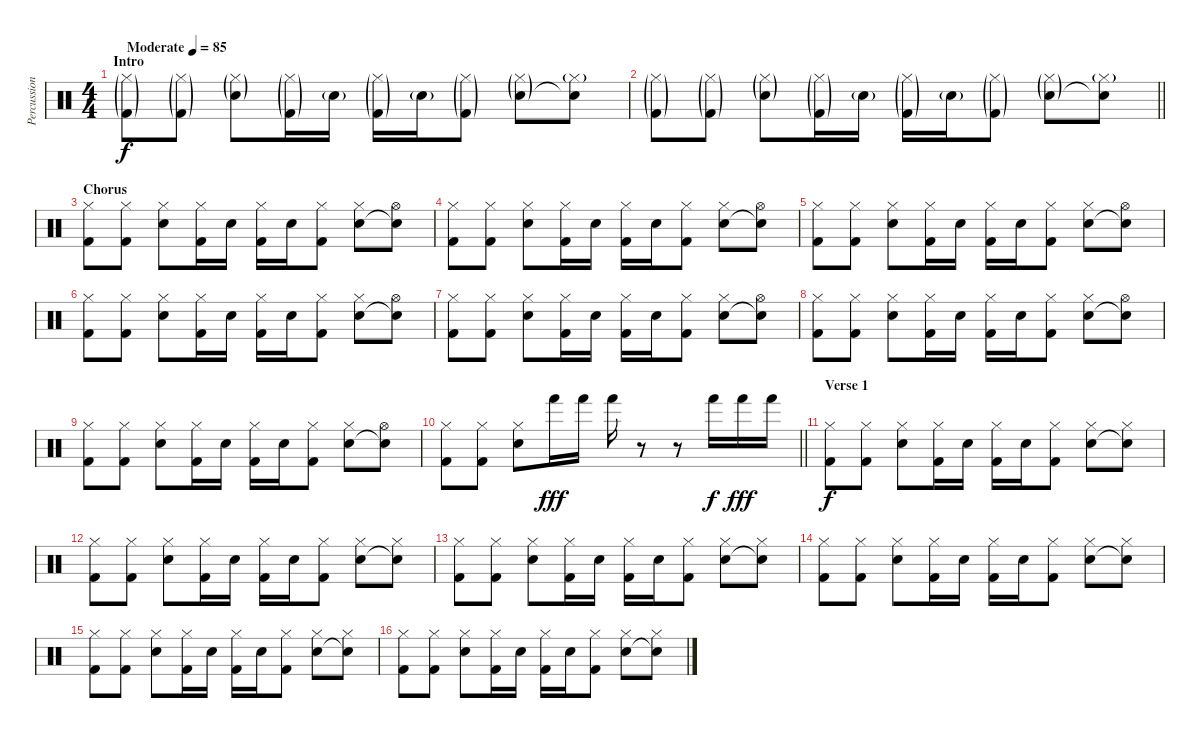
\track ("Percussion" "Percussion") {instrument percussion}
\staff {score}
\articulation defaults
\ts (4 4)
\section ("" "Intro")
\tempo (85 "Moderate")
\clef neutral
\ks c
("Hi-Hat (closed)"{g} "Kick (hit) 2"{g}).8{dy f} ("Hi-Hat (closed)"{g} "Kick (hit) 2"{g}).8 ("Hi-Hat (closed)"{g} "Electric Snare (hit)"{g}).8 ("Hi-Hat (closed)"{g} "Kick (hit) 2"{g}).16 "Electric Snare (hit)"{g}.16 ("Hi-Hat (closed)"{g} "Kick (hit) 2"{g}).16 "Electric Snare (hit)"{g}.16 ("Hi-Hat (closed)"{g} "Kick (hit) 2"{g}).8 ("Hi-Hat (closed)"{g} "Electric Snare (hit)"{g}).8 ("Hi-Hat (closed)"{g} "Snare (hit)"{t}).8 |
\barLineRight lightlight
("Hi-Hat (closed)"{g} "Kick (hit) 2"{g}).8 ("Hi-Hat (closed)"{g} "Kick (hit) 2"{g}).8 ("Hi-Hat (closed)"{g} "Electric Snare (hit)"{g}).8 ("Hi-Hat (closed)"{g} "Kick (hit) 2"{g}).16 "Electric Snare (hit)"{g}.16 ("Hi-Hat (closed)"{g} "Kick (hit) 2"{g}).16 "Electric Snare (hit)"{g}.16 ("Hi-Hat (closed)"{g} "Kick (hit) 2"{g}).8 ("Hi-Hat (closed)"{g} "Electric Snare (hit)"{g}).8 ("Hi-Hat (closed)"{g} "Snare (hit)"{t}).8 |
\section ("" "Chorus")
("Hi-Hat (closed)" "Kick (hit) 2").8 ("Hi-Hat (closed)" "Kick (hit) 2").8 ("Hi-Hat (closed)" "Electric Snare (hit)").8 ("Hi-Hat (closed)" "Kick (hit) 2").16 "Electric Snare (hit)".16 ("Hi-Hat (closed)" "Kick (hit) 2").16 "Electric Snare (hit)".16 ("Hi-Hat (closed)" "Kick (hit) 2").8 ("Hi-Hat (closed)" "Electric Snare (hit)").8 ("Hi-Hat (open)" "Snare (hit)"{t}).8 |
("Hi-Hat (closed)" "Kick (hit) 2").8 ("Hi-Hat (closed)" "Kick (hit) 2").8 ("Hi-Hat (closed)" "Electric Snare (hit)").8 ("Hi-Hat (closed)" "Kick (hit) 2").16 "Electric Snare (hit)".16 ("Hi-Hat (closed)" "Kick (hit) 2").16 "Electric Snare (hit)".16 ("Hi-Hat (closed)" "Kick (hit) 2").8 ("Hi-Hat (closed)" "Electric Snare (hit)").8 ("Hi-Hat (open)" "Snare (hit)"{t}).8 |
("Hi-Hat (closed)" "Kick (hit) 2").8 ("Hi-Hat (closed)" "Kick (hit) 2").8 ("Hi-Hat (closed)" "Electric Snare (hit)").8 ("Hi-Hat (closed)" "Kick (hit) 2").16 "Electric Snare (hit)".16 ("Hi-Hat (closed)" "Kick (hit) 2").16 "Electric Snare (hit)".16 ("Hi-Hat (closed)" "Kick (hit) 2").8 ("Hi-Hat (closed)" "Electric Snare (hit)").8 ("Hi-Hat (open)" "Snare (hit)"{t}).8 |
("Hi-Hat (closed)" "Kick (hit) 2").8 ("Hi-Hat (closed)" "Kick (hit) 2").8 ("Hi-Hat (closed)" "Electric Snare (hit)").8 ("Hi-Hat (closed)" "Kick (hit) 2").16 "Electric Snare (hit)".16 ("Hi-Hat (closed)" "Kick (hit) 2").16 "Electric Snare (hit)".16 ("Hi-Hat (closed)" "Kick (hit) 2").8 ("Hi-Hat (closed)" "Electric Snare (hit)").8 ("Hi-Hat (open)" "Snare (hit)"{t}).8 |
("Hi-Hat (closed)" "Kick (hit) 2").8 ("Hi-Hat (closed)" "Kick (hit) 2").8 ("Hi-Hat (closed)" "Electric Snare (hit)").8 ("Hi-Hat (closed)" "Kick (hit) 2").16 "Electric Snare (hit)".16 ("Hi-Hat (closed)" "Kick (hit) 2").16 "Electric Snare (hit)".16 ("Hi-Hat (closed)" "Kick (hit) 2").8 ("Hi-Hat (closed)" "Electric Snare (hit)").8 ("Hi-Hat (open)" "Snare (hit)"{t}).8 |
("Hi-Hat (closed)" "Kick (hit) 2").8 ("Hi-Hat (closed)" "Kick (hit) 2").8 ("Hi-Hat (closed)" "Electric Snare (hit)").8 ("Hi-Hat (closed)" "Kick (hit) 2").16 "Electric Snare (hit)".16 ("Hi-Hat (closed)" "Kick (hit) 2").16 "Electric Snare (hit)".16 ("Hi-Hat (closed)" "Kick (hit) 2").8 ("Hi-Hat (closed)" "Electric Snare (hit)").8 ("Hi-Hat (open)" "Snare (hit)"{t}).8 |
("Hi-Hat (closed)" "Kick (hit) 2").8 ("Hi-Hat (closed)" "Kick (hit) 2").8 ("Hi-Hat (closed)" "Electric Snare (hit)").8 ("Hi-Hat (closed)" "Kick (hit) 2").16 "Electric Snare (hit)".16 ("Hi-Hat (closed)" "Kick (hit) 2").16 "Electric Snare (hit)".16 ("Hi-Hat (closed)" "Kick (hit) 2").8 ("Hi-Hat (closed)" "Electric Snare (hit)").8 ("Hi-Hat (open)" "Snare (hit)"{t}).8 |
\barLineRight lightlight
("Hi-Hat (closed)" "Kick (hit) 2").8 ("Hi-Hat (closed)" "Kick (hit) 2").8 ("Hi-Hat (closed)" "Electric Snare (hit)").8 "Hand (hit)".16{dy fff} "Hand (hit)".16 "Hand (hit)".16 r.8 r.8 "Hand (hit)".16{dy f} "Hand (hit)".16{dy fff} "Hand (hit)".16 |
\section ("" "Verse 1")
("Hi-Hat (closed)" "Kick (hit) 2").8{dy f} ("Hi-Hat (closed)" "Kick (hit) 2").8 ("Hi-Hat (closed)" "Electric Snare (hit)").8 ("Hi-Hat (closed)" "Kick (hit) 2").16 "Electric Snare (hit)".16 ("Hi-Hat (closed)" "Kick (hit) 2").16 "Electric Snare (hit)".16 ("Hi-Hat (closed)" "Kick (hit) 2").8 ("Hi-Hat (closed)" "Electric Snare (hit)").8 ("Hi-Hat (closed)" "Snare (hit)"{t}).8 |
("Hi-Hat (closed)" "Kick (hit) 2").8 ("Hi-Hat (closed)" "Kick (hit) 2").8 ("Hi-Hat (closed)" "Electric Snare (hit)").8 ("Hi-Hat (closed)" "Kick (hit) 2").16 "Electric Snare (hit)".16 ("Hi-Hat (closed)" "Kick (hit) 2").16 "Electric Snare (hit)".16 ("Hi-Hat (closed)" "Kick (hit) 2").8 ("Hi-Hat (closed)" "Electric Snare (hit)").8 ("Hi-Hat (closed)" "Snare (hit)"{t}).8 |
("Hi-Hat (closed)" "Kick (hit) 2").8 ("Hi-Hat (closed)" "Kick (hit) 2").8 ("Hi-Hat (closed)" "Electric Snare (hit)").8 ("Hi-Hat (closed)" "Kick (hit) 2").16 "Electric Snare (hit)".16 ("Hi-Hat (closed)" "Kick (hit) 2").16 "Electric Snare (hit)".16 ("Hi-Hat (closed)" "Kick (hit) 2").8 ("Hi-Hat (closed)" "Electric Snare (hit)").8 ("Hi-Hat (closed)" "Snare (hit)"{t}).8 |
("Hi-Hat (closed)" "Kick (hit) 2").8 ("Hi-Hat (closed)" "Kick (hit) 2").8 ("Hi-Hat (closed)" "Electric Snare (hit)").8 ("Hi-Hat (closed)" "Kick (hit) 2").16 "Electric Snare (hit)".16 ("Hi-Hat (closed)" "Kick (hit) 2").16 "Electric Snare (hit)".16 ("Hi-Hat (closed)" "Kick (hit) 2").8 ("Hi-Hat (closed)" "Electric Snare (hit)").8 ("Hi-Hat (closed)" "Snare (hit)"{t}).8 |
("Hi-Hat (closed)" "Kick (hit) 2").8 ("Hi-Hat (closed)" "Kick (hit) 2").8 ("Hi-Hat (closed)" "Electric Snare (hit)").8 ("Hi-Hat (closed)" "Kick (hit) 2").16 "Electric Snare (hit)".16 ("Hi-Hat (closed)" "Kick (hit) 2").16 "Electric Snare (hit)".16 ("Hi-Hat (closed)" "Kick (hit) 2").8 ("Hi-Hat (closed)" "Electric Snare (hit)").8 ("Hi-Hat (closed)" "Snare (hit)"{t}).8 |
("Hi-Hat (closed)" "Kick (hit) 2").8 ("Hi-Hat (closed)" "Kick (hit) 2").8 ("Hi-Hat (closed)" "Electric Snare (hit)").8 ("Hi-Hat (closed)" "Kick (hit) 2").16 "Electric Snare (hit)".16 ("Hi-Hat (closed)" "Kick (hit) 2").16 "Electric Snare (hit)".16 ("Hi-Hat (closed)" "Kick (hit) 2").8 ("Hi-Hat (closed)" "Electric Snare (hit)").8 ("Hi-Hat (closed)" "Snare (hit)"{t}).8
